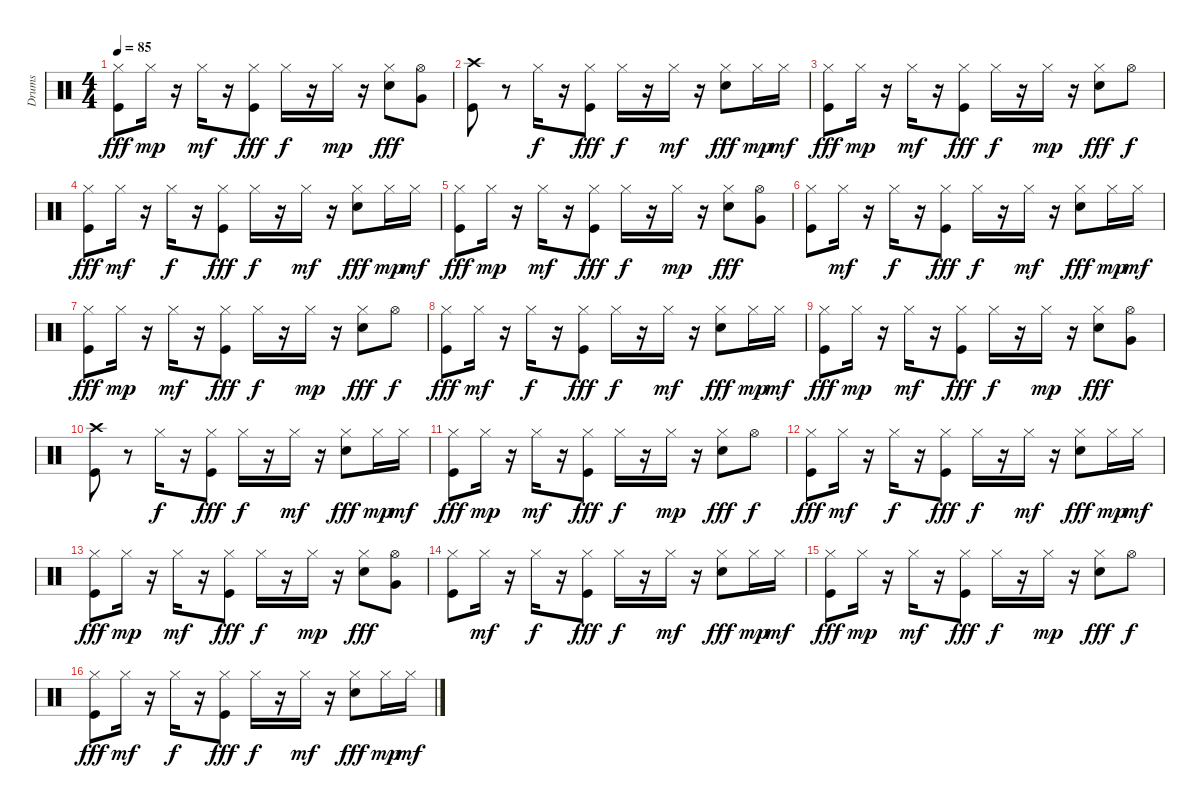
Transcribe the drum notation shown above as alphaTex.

\track ("Drums" "Drums") {instrument percussion}
\staff {score}
\articulation defaults
\ts (4 4)
\tempo 85
\clef neutral
\ks c
("Hi-Hat (closed)" "Kick (hit)").8{dy fff} "Hi-Hat (closed)".16{dy mp} r.16 "Hi-Hat (closed)".16{dy mf} r.16 ("Hi-Hat (closed)" "Kick (hit)").8{dy fff} "Hi-Hat (closed)".16{dy f} r.16 "Hi-Hat (closed)".16{dy mp} r.16 ("Hi-Hat (closed)" "Electric Snare (hit)").8{dy fff} ("Hi-Hat (open)" "Very Low Tom (hit)").8 |
("Crash high (hit)" "Kick (hit)").8 r.8 "Hi-Hat (closed)".16{dy f} r.16 ("Hi-Hat (closed)" "Kick (hit)").8{dy fff} "Hi-Hat (closed)".16{dy f} r.16 "Hi-Hat (closed)".16{dy mf} r.16 ("Hi-Hat (closed)" "Electric Snare (hit)").8{dy fff} "Hi-Hat (closed)".16{dy mp} "Hi-Hat (closed)".16{dy mf} |
("Hi-Hat (closed)" "Kick (hit)").8{dy fff} "Hi-Hat (closed)".16{dy mp} r.16 "Hi-Hat (closed)".16{dy mf} r.16 ("Hi-Hat (closed)" "Kick (hit)").8{dy fff} "Hi-Hat (closed)".16{dy f} r.16 "Hi-Hat (closed)".16{dy mp} r.16 ("Hi-Hat (closed)" "Electric Snare (hit)").8{dy fff} "Hi-Hat (open)".8{dy f} |
("Hi-Hat (closed)" "Kick (hit)").8{dy fff} "Hi-Hat (closed)".16{dy mf} r.16 "Hi-Hat (closed)".16{dy f} r.16 ("Hi-Hat (closed)" "Kick (hit)").8{dy fff} "Hi-Hat (closed)".16{dy f} r.16 "Hi-Hat (closed)".16{dy mf} r.16 ("Hi-Hat (closed)" "Electric Snare (hit)").8{dy fff} "Hi-Hat (closed)".16{dy mp} "Hi-Hat (closed)".16{dy mf} |
("Hi-Hat (closed)" "Kick (hit)").8{dy fff} "Hi-Hat (closed)".16{dy mp} r.16 "Hi-Hat (closed)".16{dy mf} r.16 ("Hi-Hat (closed)" "Kick (hit)").8{dy fff} "Hi-Hat (closed)".16{dy f} r.16 "Hi-Hat (closed)".16{dy mp} r.16 ("Hi-Hat (closed)" "Electric Snare (hit)").8{dy fff} ("Hi-Hat (open)" "Very Low Tom (hit)").8 |
("Hi-Hat (closed)" "Kick (hit)").8 "Hi-Hat (closed)".16{dy mf} r.16 "Hi-Hat (closed)".16{dy f} r.16 ("Hi-Hat (closed)" "Kick (hit)").8{dy fff} "Hi-Hat (closed)".16{dy f} r.16 "Hi-Hat (closed)".16{dy mf} r.16 ("Hi-Hat (closed)" "Electric Snare (hit)").8{dy fff} "Hi-Hat (closed)".16{dy mp} "Hi-Hat (closed)".16{dy mf} |
("Hi-Hat (closed)" "Kick (hit)").8{dy fff} "Hi-Hat (closed)".16{dy mp} r.16 "Hi-Hat (closed)".16{dy mf} r.16 ("Hi-Hat (closed)" "Kick (hit)").8{dy fff} "Hi-Hat (closed)".16{dy f} r.16 "Hi-Hat (closed)".16{dy mp} r.16 ("Hi-Hat (closed)" "Electric Snare (hit)").8{dy fff} "Hi-Hat (open)".8{dy f} |
("Hi-Hat (closed)" "Kick (hit)").8{dy fff} "Hi-Hat (closed)".16{dy mf} r.16 "Hi-Hat (closed)".16{dy f} r.16 ("Hi-Hat (closed)" "Kick (hit)").8{dy fff} "Hi-Hat (closed)".16{dy f} r.16 "Hi-Hat (closed)".16{dy mf} r.16 ("Hi-Hat (closed)" "Electric Snare (hit)").8{dy fff} "Hi-Hat (closed)".16{dy mp} "Hi-Hat (closed)".16{dy mf} |
("Hi-Hat (closed)" "Kick (hit)").8{dy fff} "Hi-Hat (closed)".16{dy mp} r.16 "Hi-Hat (closed)".16{dy mf} r.16 ("Hi-Hat (closed)" "Kick (hit)").8{dy fff} "Hi-Hat (closed)".16{dy f} r.16 "Hi-Hat (closed)".16{dy mp} r.16 ("Hi-Hat (closed)" "Electric Snare (hit)").8{dy fff} ("Hi-Hat (open)" "Very Low Tom (hit)").8 |
("Crash high (hit)" "Kick (hit)").8 r.8 "Hi-Hat (closed)".16{dy f} r.16 ("Hi-Hat (closed)" "Kick (hit)").8{dy fff} "Hi-Hat (closed)".16{dy f} r.16 "Hi-Hat (closed)".16{dy mf} r.16 ("Hi-Hat (closed)" "Electric Snare (hit)").8{dy fff} "Hi-Hat (closed)".16{dy mp} "Hi-Hat (closed)".16{dy mf} |
("Hi-Hat (closed)" "Kick (hit)").8{dy fff} "Hi-Hat (closed)".16{dy mp} r.16 "Hi-Hat (closed)".16{dy mf} r.16 ("Hi-Hat (closed)" "Kick (hit)").8{dy fff} "Hi-Hat (closed)".16{dy f} r.16 "Hi-Hat (closed)".16{dy mp} r.16 ("Hi-Hat (closed)" "Electric Snare (hit)").8{dy fff} "Hi-Hat (open)".8{dy f} |
("Hi-Hat (closed)" "Kick (hit)").8{dy fff} "Hi-Hat (closed)".16{dy mf} r.16 "Hi-Hat (closed)".16{dy f} r.16 ("Hi-Hat (closed)" "Kick (hit)").8{dy fff} "Hi-Hat (closed)".16{dy f} r.16 "Hi-Hat (closed)".16{dy mf} r.16 ("Hi-Hat (closed)" "Electric Snare (hit)").8{dy fff} "Hi-Hat (closed)".16{dy mp} "Hi-Hat (closed)".16{dy mf} |
("Hi-Hat (closed)" "Kick (hit)").8{dy fff} "Hi-Hat (closed)".16{dy mp} r.16 "Hi-Hat (closed)".16{dy mf} r.16 ("Hi-Hat (closed)" "Kick (hit)").8{dy fff} "Hi-Hat (closed)".16{dy f} r.16 "Hi-Hat (closed)".16{dy mp} r.16 ("Hi-Hat (closed)" "Electric Snare (hit)").8{dy fff} ("Hi-Hat (open)" "Very Low Tom (hit)").8 |
("Hi-Hat (closed)" "Kick (hit)").8 "Hi-Hat (closed)".16{dy mf} r.16 "Hi-Hat (closed)".16{dy f} r.16 ("Hi-Hat (closed)" "Kick (hit)").8{dy fff} "Hi-Hat (closed)".16{dy f} r.16 "Hi-Hat (closed)".16{dy mf} r.16 ("Hi-Hat (closed)" "Electric Snare (hit)").8{dy fff} "Hi-Hat (closed)".16{dy mp} "Hi-Hat (closed)".16{dy mf} |
("Hi-Hat (closed)" "Kick (hit)").8{dy fff} "Hi-Hat (closed)".16{dy mp} r.16 "Hi-Hat (closed)".16{dy mf} r.16 ("Hi-Hat (closed)" "Kick (hit)").8{dy fff} "Hi-Hat (closed)".16{dy f} r.16 "Hi-Hat (closed)".16{dy mp} r.16 ("Hi-Hat (closed)" "Electric Snare (hit)").8{dy fff} "Hi-Hat (open)".8{dy f} |
("Hi-Hat (closed)" "Kick (hit)").8{dy fff} "Hi-Hat (closed)".16{dy mf} r.16 "Hi-Hat (closed)".16{dy f} r.16 ("Hi-Hat (closed)" "Kick (hit)").8{dy fff} "Hi-Hat (closed)".16{dy f} r.16 "Hi-Hat (closed)".16{dy mf} r.16 ("Hi-Hat (closed)" "Electric Snare (hit)").8{dy fff} "Hi-Hat (closed)".16{dy mp} "Hi-Hat (closed)".16{dy mf}
